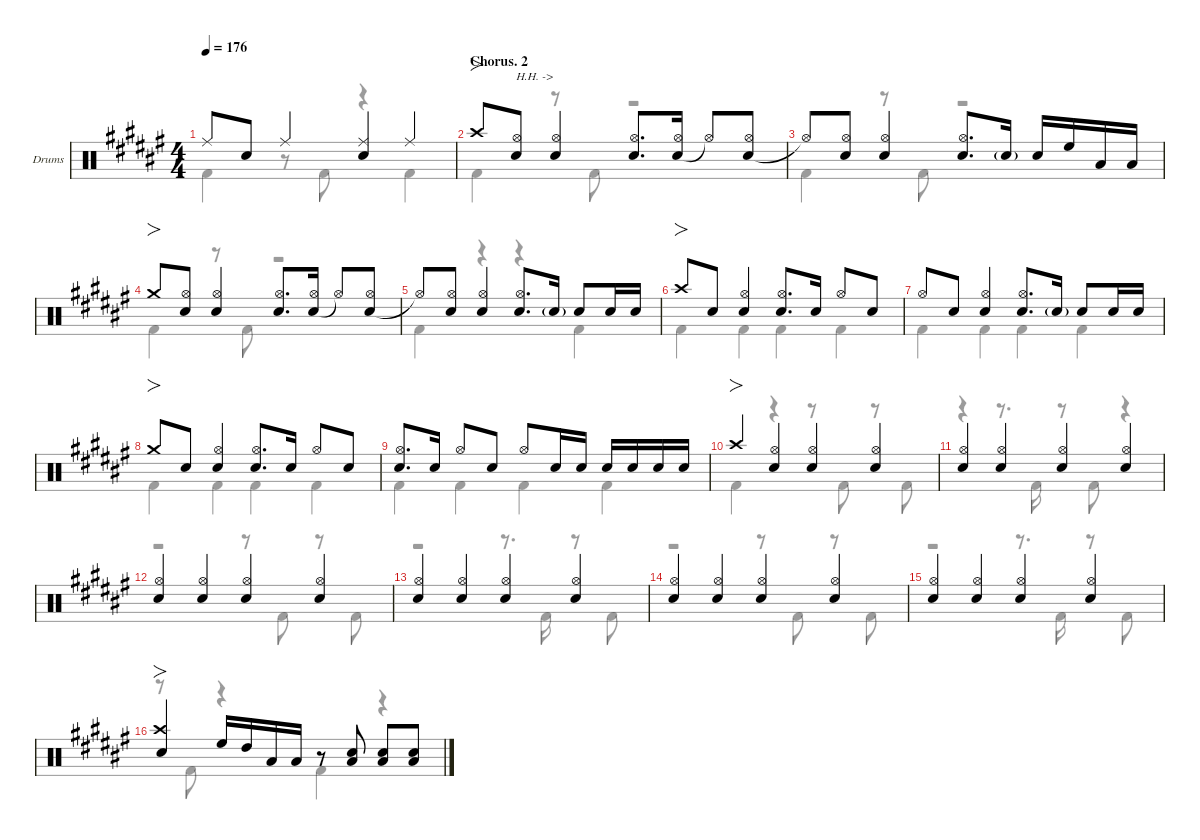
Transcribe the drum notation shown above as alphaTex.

\defaultSystemsLayout 4
\hideDynamics
\bracketExtendMode nobrackets
\firstSystemTrackNameOrientation horizontal
\track ("Drums" "Drums") {defaultSystemsLayout 4 instrument percussion}
\staff {score}
\articulation defaults
\voice
\ts (4 4)
\tempo 176
\clef neutral
\ks f# "Ride (middle)"{acc forcenatural}.8{dy f beam Up} "Snare (hit) 2"{acc forcenatural}.8{beam Up} "Ride (middle)"{acc forcenatural}.4{beam Up}
("Ride (middle)"{acc forcenatural} "Snare (hit) 2"{acc forcenatural}).4{beam Up} "Ride (middle)"{acc forcenatural}.4{beam Up} |
\section ("" "Chorus. 2")
"Crash high (hit)"{acc forcenatural}.8{fo beam Up} ("Snare (hit) 2"{acc forcenatural} "Hi-Hat (open)"{acc forcenatural}).8{txt "H.H. ->" beam Up} ("Snare (hit) 2"{acc forcenatural} "Hi-Hat (open)"{acc forcenatural}).4{beam Up} ("Snare (hit) 2"{acc forcenatural} "Hi-Hat (open)"{acc forcenatural}).8{d beam Up} ("Snare (hit) 2"{acc forcenatural} "Hi-Hat (open)"{acc forcenatural}).16{beam Up beam split} "Hi-Hat (open)"{t acc forcenatural}.8{beam Up beam merge} ("Snare (hit) 2"{acc forcenatural} "Hi-Hat (open)"{acc forcenatural}).8{beam Up} |
"Hi-Hat (open)"{t acc forcenatural}.8{beam Up} ("Hi-Hat (open)"{acc forcenatural} "Snare (hit) 2"{acc forcenatural}).8{beam Up} ("Hi-Hat (open)"{acc forcenatural} "Snare (hit) 2"{acc forcenatural}).4{beam Up} ("Snare (hit) 2"{acc forcenatural} "Hi-Hat (open)"{acc forcenatural}).8{d beam Up} "Snare (hit) 2"{g acc forcenatural}.16{dy mf beam Up beam split} "Snare (hit) 2"{acc forcenatural}.16{dy f beam Up} "High Floor Tom (hit)"{acc forcenatural}.16{beam Up} "Low Tom (hit)"{acc forcenatural}.16{beam Up} "Low Tom (hit)"{acc forcenatural}.16{beam Up} |
"Crash medium (hit)"{acc forcenatural}.8{fo beam Up} ("Snare (hit) 2"{acc forcenatural} "Hi-Hat (open)"{acc forcenatural}).8{beam Up} ("Snare (hit) 2"{acc forcenatural} "Hi-Hat (open)"{acc forcenatural}).4{beam Up} ("Snare (hit) 2"{acc forcenatural} "Hi-Hat (open)"{acc forcenatural}).8{d beam Up} ("Snare (hit) 2"{acc forcenatural} "Hi-Hat (open)"{acc forcenatural}).16{beam Up beam split} "Hi-Hat (open)"{t acc forcenatural}.8{beam Up beam merge} ("Snare (hit) 2"{acc forcenatural} "Hi-Hat (open)"{acc forcenatural}).8{beam Up} |
"Hi-Hat (open)"{t acc forcenatural}.8{beam Up} ("Hi-Hat (open)"{acc forcenatural} "Snare (hit) 2"{acc forcenatural}).8{beam Up} ("Hi-Hat (open)"{acc forcenatural} "Snare (hit) 2"{acc forcenatural}).4{beam Up} ("Snare (hit) 2"{acc forcenatural} "Hi-Hat (open)"{acc forcenatural}).8{d beam Up} "Snare (hit) 2"{g acc forcenatural}.16{dy mf beam Up beam split} "Snare (hit) 2"{acc forcenatural}.8{dy f beam Up} "Snare (hit) 2"{acc forcenatural}.16{beam Up} "Snare (hit) 2"{acc forcenatural}.16{dy mf beam Up} |
"Crash high (hit)"{acc forcenatural}.8{fo dy f beam Up} "Snare (hit) 2"{acc forcenatural}.8{beam Up} ("Snare (hit) 2"{acc forcenatural} "Hi-Hat (open)"{acc forcenatural}).4{beam Up} ("Hi-Hat (open)"{acc forcenatural} "Snare (hit) 2"{acc forcenatural}).8{d beam Up} "Snare (hit) 2"{acc forcenatural}.16{beam Up beam split} "Hi-Hat (open)"{acc forcenatural}.8{beam Up} "Snare (hit) 2"{acc forcenatural}.8{beam Up} |
"Hi-Hat (open)"{acc forcenatural}.8{beam Up} "Snare (hit) 2"{acc forcenatural}.8{beam Up} ("Snare (hit) 2"{acc forcenatural} "Hi-Hat (open)"{acc forcenatural}).4{beam Up} ("Snare (hit) 2"{acc forcenatural} "Hi-Hat (open)"{acc forcenatural}).8{d beam Up} "Snare (hit) 2"{g acc forcenatural}.16{dy mf beam Up beam split} "Snare (hit) 2"{acc forcenatural}.8{dy f beam Up} "Snare (hit) 2"{acc forcenatural}.16{beam Up} "Snare (hit) 2"{acc forcenatural}.16{dy mf beam Up} |
"Crash medium (hit)"{acc forcenatural}.8{fo dy f beam Up} "Snare (hit) 2"{acc forcenatural}.8{beam Up} ("Snare (hit) 2"{acc forcenatural} "Hi-Hat (open)"{acc forcenatural}).4{beam Up} ("Hi-Hat (open)"{acc forcenatural} "Snare (hit) 2"{acc forcenatural}).8{d beam Up} "Snare (hit) 2"{acc forcenatural}.16{beam Up beam split} "Hi-Hat (open)"{acc forcenatural}.8{beam Up} "Snare (hit) 2"{acc forcenatural}.8{beam Up} |
("Hi-Hat (open)"{acc forcenatural} "Snare (hit) 2"{acc forcenatural}).8{d beam Up} "Snare (hit) 2"{acc forcenatural}.16{beam Up beam split} "Hi-Hat (open)"{acc forcenatural}.8{beam Up} "Snare (hit) 2"{acc forcenatural}.8{beam Up} "Hi-Hat (open)"{acc forcenatural}.8{beam Up} "Snare (hit) 2"{acc forcenatural}.16{beam Up} "Snare (hit) 2"{acc forcenatural}.16{dy mf beam Up beam split} "Snare (hit) 2"{acc forcenatural}.16{dy f beam Up} "Snare (hit) 2"{acc forcenatural}.16{dy mf beam Up} "Snare (hit) 2"{acc forcenatural}.16{dy f beam Up} "Snare (hit) 2"{acc forcenatural}.16{dy mf beam Up} |
"Crash high (hit)"{acc forcenatural}.4{fo dy f beam Up} ("Hi-Hat (open)"{acc forcenatural} "Snare (hit) 2"{acc forcenatural}).4{beam Up} ("Hi-Hat (open)"{acc forcenatural} "Snare (hit) 2"{acc forcenatural}).4{beam Up} ("Hi-Hat (open)"{acc forcenatural} "Snare (hit) 2"{acc forcenatural}).4{beam Up} |
("Hi-Hat (open)"{acc forcenatural} "Snare (hit) 2"{acc forcenatural}).4{beam Up} ("Hi-Hat (open)"{acc forcenatural} "Snare (hit) 2"{acc forcenatural}).4{beam Up} ("Hi-Hat (open)"{acc forcenatural} "Snare (hit) 2"{acc forcenatural}).4{beam Up} ("Hi-Hat (open)"{acc forcenatural} "Snare (hit) 2"{acc forcenatural}).4{beam Up} |
("Hi-Hat (open)"{acc forcenatural} "Snare (hit) 2"{acc forcenatural}).4{beam Up} ("Hi-Hat (open)"{acc forcenatural} "Snare (hit) 2"{acc forcenatural}).4{beam Up} ("Hi-Hat (open)"{acc forcenatural} "Snare (hit) 2"{acc forcenatural}).4{beam Up} ("Hi-Hat (open)"{acc forcenatural} "Snare (hit) 2"{acc forcenatural}).4{beam Up} |
("Hi-Hat (open)"{acc forcenatural} "Snare (hit) 2"{acc forcenatural}).4{beam Up} ("Hi-Hat (open)"{acc forcenatural} "Snare (hit) 2"{acc forcenatural}).4{beam Up} ("Hi-Hat (open)"{acc forcenatural} "Snare (hit) 2"{acc forcenatural}).4{beam Up} ("Hi-Hat (open)"{acc forcenatural} "Snare (hit) 2"{acc forcenatural}).4{beam Up} |
("Hi-Hat (open)"{acc forcenatural} "Snare (hit) 2"{acc forcenatural}).4{beam Up} ("Hi-Hat (open)"{acc forcenatural} "Snare (hit) 2"{acc forcenatural}).4{beam Up} ("Hi-Hat (open)"{acc forcenatural} "Snare (hit) 2"{acc forcenatural}).4{beam Up} ("Hi-Hat (open)"{acc forcenatural} "Snare (hit) 2"{acc forcenatural}).4{beam Up} |
("Hi-Hat (open)"{acc forcenatural} "Snare (hit) 2"{acc forcenatural}).4{beam Up} ("Hi-Hat (open)"{acc forcenatural} "Snare (hit) 2"{acc forcenatural}).4{beam Up} ("Hi-Hat (open)"{acc forcenatural} "Snare (hit) 2"{acc forcenatural}).4{beam Up} ("Hi-Hat (open)"{acc forcenatural} "Snare (hit) 2"{acc forcenatural}).4{beam Up} |
("Crash high (hit)"{acc forcenatural} "Snare (hit) 2"{acc forcenatural}).4{fo beam Up} "High Floor Tom (hit)"{acc forcenatural}.16{beam Up} "High Tom (hit)"{acc forcenatural}.16{beam Up} "Low Tom (hit)"{acc forcenatural}.16{beam Up} "Low Tom (hit)"{acc forcenatural}.16{beam Up} r.8{beam Up} ("Low Tom (hit)"{acc forcenatural} "Snare (hit) 2"{acc forcenatural}).8{beam Up} ("Low Tom (hit)"{acc forcenatural} "Snare (hit) 2"{acc forcenatural}).8{beam Up} ("Low Tom (hit)"{acc forcenatural} "Snare (hit) 2"{acc forcenatural}).8{beam Up}
\voice
\clef neutral
\ottava regular
\simile none
\ks f# "Kick (hit) 2"{acc forcenatural}.4{dy f beam Down}
r.8{beam Down} "Kick (hit) 2"{acc forcenatural}.8{beam Down} r.4{beam Down} "Kick (hit) 2"{acc forcenatural}.4{beam Down} |
"Kick (hit) 2"{acc forcenatural}.4{beam Down} r.8{beam Down} "Kick (hit) 2"{acc forcenatural}.8{beam Down} r.2{beam Down} |
"Kick (hit) 2"{acc forcenatural}.4{beam Down} r.8{beam Down} "Kick (hit) 2"{acc forcenatural}.8{beam Down} r.2{beam Down} |
"Kick (hit) 2"{acc forcenatural}.4{beam Down} r.8{beam Down} "Kick (hit) 2"{acc forcenatural}.8{beam Down} r.2{beam Down} |
"Kick (hit) 2"{acc forcenatural}.4{beam Down} r.4{beam Down} r.4{beam Down} "Kick (hit) 2"{acc forcenatural}.4{beam Down} |
"Kick (hit) 2"{acc forcenatural}.4{beam Down} "Kick (hit) 2"{acc forcenatural}.4{beam Down} "Kick (hit) 2"{acc forcenatural}.4{beam Down} "Kick (hit) 2"{acc forcenatural}.4{beam Down} |
"Kick (hit) 2"{acc forcenatural}.4{beam Down} "Kick (hit) 2"{acc forcenatural}.4{beam Down} "Kick (hit) 2"{acc forcenatural}.4{beam Down} "Kick (hit) 2"{acc forcenatural}.4{beam Down} |
"Kick (hit) 2"{acc forcenatural}.4{beam Down} "Kick (hit) 2"{acc forcenatural}.4{beam Down} "Kick (hit) 2"{acc forcenatural}.4{beam Down} "Kick (hit) 2"{acc forcenatural}.4{beam Down} |
"Kick (hit) 2"{acc forcenatural}.4{beam Down} "Kick (hit) 2"{acc forcenatural}.4{beam Down} "Kick (hit) 2"{acc forcenatural}.4{beam Down} "Kick (hit) 2"{acc forcenatural}.4{beam Down} |
"Kick (hit) 2"{acc forcenatural}.4{beam Down} r.4{beam Down} r.8{beam Down} "Kick (hit) 2"{acc forcenatural}.8{beam Down} r.8{beam Down} "Kick (hit) 2"{acc forcenatural}.8{beam Down} |
r.4{beam Down} r.8{d beam Down} "Kick (hit) 2"{acc forcenatural}.16{beam Down} r.8{beam Down} "Kick (hit) 2"{acc forcenatural}.8{beam Down} r.4{beam Down} |
r.2{beam Down} r.8{beam Down} "Kick (hit) 2"{acc forcenatural}.8{beam Down} r.8{beam Down} "Kick (hit) 2"{acc forcenatural}.8{beam Down} |
r.2{beam Down} r.8{d beam Down} "Kick (hit) 2"{acc forcenatural}.16{beam Down} r.8{beam Down} "Kick (hit) 2"{acc forcenatural}.8{beam Down} |
r.2{beam Down} r.8{beam Down} "Kick (hit) 2"{acc forcenatural}.8{beam Down} r.8{beam Down} "Kick (hit) 2"{acc forcenatural}.8{beam Down} |
r.2{beam Down} r.8{d beam Down} "Kick (hit) 2"{acc forcenatural}.16{beam Down} r.8{beam Down} "Kick (hit) 2"{acc forcenatural}.8{beam Down} |
r.8{beam Down} "Kick (hit) 2"{acc forcenatural}.8{beam Down} r.4{beam Down} "Kick (hit) 2"{acc forcenatural}.4{beam Down} r.4{beam Down}
